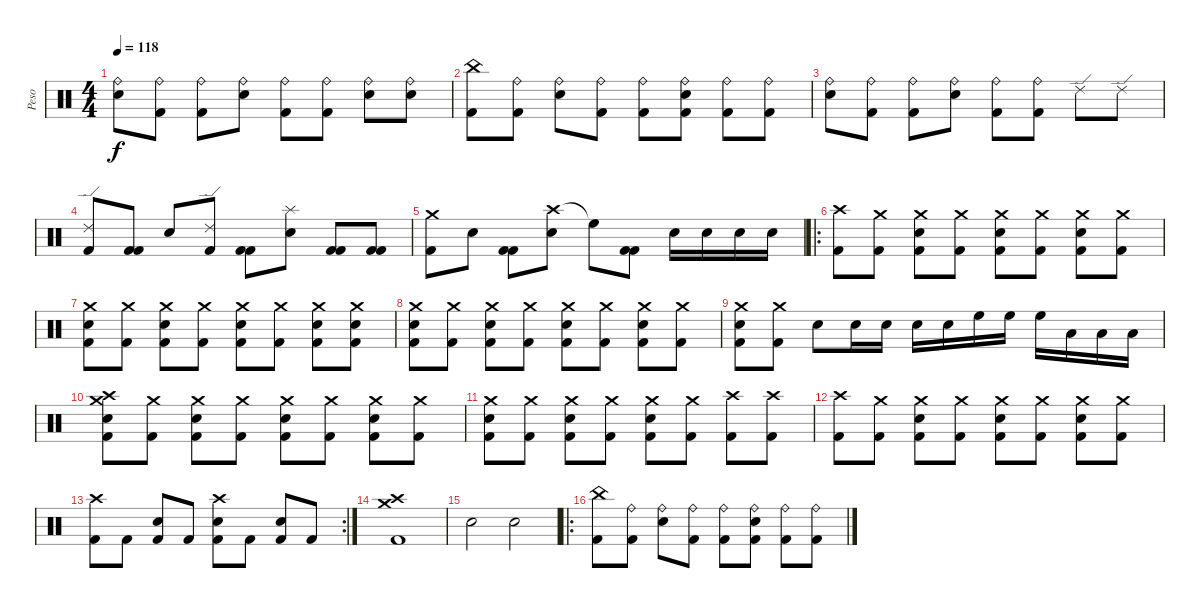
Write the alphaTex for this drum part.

\track ("Peso" "Peso") {instrument percussion}
\staff {score}
\articulation defaults
\ts (4 4)
\tempo 118
\clef neutral
\ks c
("Ride (bell)" "Snare (hit) 2").8{dy f} ("Ride (bell)" "Kick (hit) 2").8 ("Ride (bell)" "Kick (hit) 2").8 ("Ride (bell)" "Snare (hit) 2").8 ("Ride (bell)" "Kick (hit) 2").8 ("Ride (bell)" "Kick (hit) 2").8 ("Ride (bell)" "Snare (hit) 2").8 ("Ride (bell)" "Snare (hit) 2").8 |
("China (hit)" "Kick (hit) 2").8 ("Ride (bell)" "Kick (hit) 2").8 ("Ride (bell)" "Snare (hit) 2").8 ("Ride (bell)" "Kick (hit) 2").8 ("Ride (bell)" "Kick (hit) 2").8 ("Ride (bell)" "Snare (hit) 2" "Kick (hit) 2").8 ("Ride (bell)" "Kick (hit) 2").8 ("Ride (bell)" "Kick (hit) 2").8 |
("Ride (bell)" "Snare (hit) 2").8 ("Ride (bell)" "Kick (hit) 2").8 ("Ride (bell)" "Kick (hit) 2").8 ("Ride (bell)" "Snare (hit) 2").8 ("Ride (bell)" "Kick (hit) 2").8 ("Ride (bell)" "Kick (hit) 2").8 "Ride (edge) 2".8 "Ride (edge) 2".8 |
("Ride (edge) 2" "Kick (hit) 2").8 ("Kick (hit) 2" "Kick (hit) 2").8 "Snare (hit) 2".8 ("Ride (edge) 2" "Kick (hit) 2").8 ("Kick (hit) 2" "Kick (hit) 2").8 ("Splash (hit)" "Snare (hit) 2").8{volume 12} ("Kick (hit) 2" "Kick (hit) 2").8 ("Kick (hit) 2" "Kick (hit) 2").8 |
("Crash medium (hit)" "Kick (hit) 2").8{volume 14} "Snare (hit) 2".8 ("Kick (hit) 2" "Kick (hit) 2").8 ("Crash high (hit)" "Snare (hit) 2").8{volume 16} "High Floor Tom (hit)"{t}.8 ("Kick (hit) 2" "Kick (hit) 2").8 "Snare (hit) 2".16 "Snare (hit) 2".16 "Snare (hit) 2".16 "Snare (hit) 2".16 |
\ro
("Crash high (hit)" "Kick (hit) 2").8{volume 14} ("Crash medium (hit)" "Kick (hit) 2").8 ("Crash medium (hit)" "Snare (hit) 2" "Kick (hit) 2").8 ("Crash medium (hit)" "Kick (hit) 2").8 ("Crash medium (hit)" "Snare (hit) 2" "Kick (hit) 2").8 ("Crash medium (hit)" "Kick (hit) 2").8 ("Crash medium (hit)" "Snare (hit) 2" "Kick (hit) 2").8 ("Crash medium (hit)" "Kick (hit) 2").8 |
("Crash medium (hit)" "Snare (hit) 2" "Kick (hit) 2").8 ("Crash medium (hit)" "Kick (hit) 2").8 ("Crash medium (hit)" "Snare (hit) 2" "Kick (hit) 2").8 ("Crash medium (hit)" "Kick (hit) 2").8 ("Crash medium (hit)" "Snare (hit) 2" "Kick (hit) 2").8 ("Crash medium (hit)" "Kick (hit) 2").8 ("Crash medium (hit)" "Snare (hit) 2" "Kick (hit) 2").8 ("Crash medium (hit)" "Snare (hit) 2" "Kick (hit) 2").8 |
("Crash medium (hit)" "Snare (hit) 2" "Kick (hit) 2").8 ("Crash medium (hit)" "Kick (hit) 2").8 ("Crash medium (hit)" "Snare (hit) 2" "Kick (hit) 2").8 ("Crash medium (hit)" "Kick (hit) 2").8 ("Crash medium (hit)" "Snare (hit) 2" "Kick (hit) 2").8 ("Crash medium (hit)" "Kick (hit) 2").8 ("Crash medium (hit)" "Snare (hit) 2" "Kick (hit) 2").8 ("Crash medium (hit)" "Kick (hit) 2").8 |
("Crash medium (hit)" "Snare (hit) 2" "Kick (hit) 2").8 ("Crash medium (hit)" "Kick (hit) 2").8 "Snare (hit) 2".8 "Snare (hit) 2".16 "Snare (hit) 2".16 "Snare (hit) 2".16 "Snare (hit) 2".16 "High Floor Tom (hit)".16 "High Floor Tom (hit)".16 "High Floor Tom (hit)".16 "Low Floor Tom (hit)".16 "Low Floor Tom (hit)".16 "Low Floor Tom (hit)".16 |
("Crash high (hit)" "Crash medium (hit)" "Snare (hit) 2" "Kick (hit) 2").8 ("Crash medium (hit)" "Kick (hit) 2").8 ("Crash medium (hit)" "Snare (hit) 2" "Kick (hit) 2").8 ("Crash medium (hit)" "Kick (hit) 2").8 ("Crash medium (hit)" "Snare (hit) 2" "Kick (hit) 2").8 ("Crash medium (hit)" "Kick (hit) 2").8 ("Crash medium (hit)" "Snare (hit) 2" "Kick (hit) 2").8 ("Crash medium (hit)" "Kick (hit) 2").8 |
("Crash medium (hit)" "Snare (hit) 2" "Kick (hit) 2").8 ("Crash medium (hit)" "Kick (hit) 2").8 ("Crash medium (hit)" "Snare (hit) 2" "Kick (hit) 2").8 ("Crash medium (hit)" "Kick (hit) 2").8 ("Crash medium (hit)" "Snare (hit) 2" "Kick (hit) 2").8 ("Crash medium (hit)" "Kick (hit) 2").8 ("Crash high (hit)" "Kick (hit) 2").8 ("Crash high (hit)" "Kick (hit) 2").8{volume 12} |
("Crash high (hit)" "Kick (hit) 2").8{volume 14} ("Crash medium (hit)" "Kick (hit) 2").8 ("Crash medium (hit)" "Snare (hit) 2" "Kick (hit) 2").8 ("Crash medium (hit)" "Kick (hit) 2").8 ("Crash medium (hit)" "Snare (hit) 2" "Kick (hit) 2").8 ("Crash medium (hit)" "Kick (hit) 2").8 ("Crash medium (hit)" "Snare (hit) 2" "Kick (hit) 2").8 ("Crash medium (hit)" "Kick (hit) 2").8 |
\rc 2
("Crash high (hit)" "Kick (hit) 2").8 "Kick (hit) 2".8 ("Snare (hit) 2" "Kick (hit) 2").8 "Kick (hit) 2".8 ("Crash high (hit)" "Snare (hit) 2" "Kick (hit) 2").8 "Kick (hit) 2".8 ("Snare (hit) 2" "Kick (hit) 2").8 "Kick (hit) 2".8 |
("Crash high (hit)" "Crash medium (hit)" "Kick (hit) 2").1 |
"Snare (hit) 2".2{volume 16} "Snare (hit) 2".2 |
\ro
("China (hit)" "Kick (hit) 2").8{volume 14} ("Ride (bell)" "Kick (hit) 2").8 ("Ride (bell)" "Snare (hit) 2").8 ("Ride (bell)" "Kick (hit) 2").8 ("Ride (bell)" "Kick (hit) 2").8 ("Ride (bell)" "Snare (hit) 2" "Kick (hit) 2").8 ("Ride (bell)" "Kick (hit) 2").8 ("Ride (bell)" "Kick (hit) 2").8
